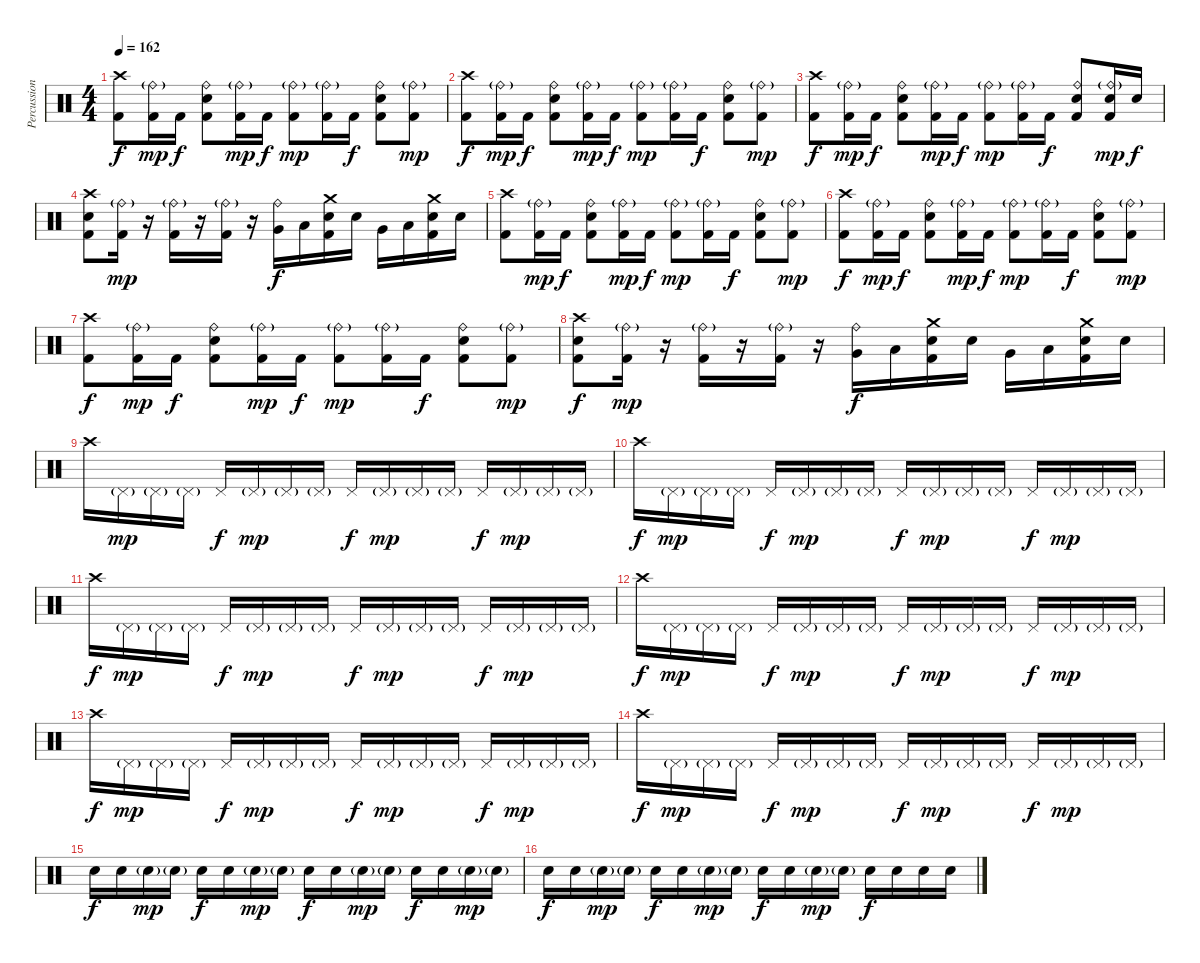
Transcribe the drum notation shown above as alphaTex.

\track ("Percussion" "Percussion") {instrument percussion}
\staff {score}
\articulation defaults
\ts (4 4)
\tempo 162
\clef neutral
\ks c
("Crash high (hit)" "Kick (hit) 2").8{dy f} ("Ride (bell)"{g} "Kick (hit) 2").16{dy mp} "Kick (hit) 2".16{dy f} ("Ride (bell)" "Electric Snare (hit)" "Kick (hit) 2").8 ("Ride (bell)"{g} "Kick (hit) 2").16{dy mp} "Kick (hit) 2".16{dy f} ("Ride (bell)"{g} "Kick (hit) 2").8{dy mp} ("Ride (bell)"{g} "Kick (hit) 2").16 "Kick (hit) 2".16{dy f} ("Ride (bell)" "Electric Snare (hit)" "Kick (hit) 2").8 ("Ride (bell)"{g} "Kick (hit) 2").8{dy mp} |
("Crash high (hit)" "Kick (hit) 2").8{dy f} ("Ride (bell)"{g} "Kick (hit) 2").16{dy mp} "Kick (hit) 2".16{dy f} ("Ride (bell)" "Electric Snare (hit)" "Kick (hit) 2").8 ("Ride (bell)"{g} "Kick (hit) 2").16{dy mp} "Kick (hit) 2".16{dy f} ("Ride (bell)"{g} "Kick (hit) 2").8{dy mp} ("Ride (bell)"{g} "Kick (hit) 2").16 "Kick (hit) 2".16{dy f} ("Ride (bell)" "Electric Snare (hit)" "Kick (hit) 2").8 ("Ride (bell)"{g} "Kick (hit) 2").8{dy mp} |
("Crash high (hit)" "Kick (hit) 2").8{dy f} ("Ride (bell)"{g} "Kick (hit) 2").16{dy mp} "Kick (hit) 2".16{dy f} ("Ride (bell)" "Electric Snare (hit)" "Kick (hit) 2").8 ("Ride (bell)"{g} "Kick (hit) 2").16{dy mp} "Kick (hit) 2".16{dy f} ("Ride (bell)"{g} "Kick (hit) 2").8{dy mp} ("Ride (bell)"{g} "Kick (hit) 2").16 "Kick (hit) 2".16{dy f} ("Ride (bell)" "Electric Snare (hit)" "Kick (hit) 2").8 ("Ride (bell)"{g} "Electric Snare (hit)" "Kick (hit) 2").16{dy mp} "Electric Snare (hit)".16{dy f} |
("Crash high (hit)" "Electric Snare (hit)" "Kick (hit) 2").8 ("Ride (bell)"{g} "Kick (hit) 2").16{dy mp} r.16 ("Ride (bell)"{g} "Kick (hit) 2").16 r.16 ("Ride (bell)"{g} "Kick (hit) 2").16 r.16 ("Ride (bell)" "Very Low Tom (hit)").16{dy f} "Low Floor Tom (hit)".16 ("Crash medium (hit)" "Electric Snare (hit)" "Kick (hit) 2").16 "Electric Snare (hit)".16 "Very Low Tom (hit)".16 "Low Floor Tom (hit)".16 ("Crash medium (hit)" "Electric Snare (hit)" "Kick (hit) 2").16 "Electric Snare (hit)".16 |
("Crash high (hit)" "Kick (hit) 2").8 ("Ride (bell)"{g} "Kick (hit) 2").16{dy mp} "Kick (hit) 2".16{dy f} ("Ride (bell)" "Electric Snare (hit)" "Kick (hit) 2").8 ("Ride (bell)"{g} "Kick (hit) 2").16{dy mp} "Kick (hit) 2".16{dy f} ("Ride (bell)"{g} "Kick (hit) 2").8{dy mp} ("Ride (bell)"{g} "Kick (hit) 2").16 "Kick (hit) 2".16{dy f} ("Ride (bell)" "Electric Snare (hit)" "Kick (hit) 2").8 ("Ride (bell)"{g} "Kick (hit) 2").8{dy mp} |
("Crash high (hit)" "Kick (hit) 2").8{dy f} ("Ride (bell)"{g} "Kick (hit) 2").16{dy mp} "Kick (hit) 2".16{dy f} ("Ride (bell)" "Electric Snare (hit)" "Kick (hit) 2").8 ("Ride (bell)"{g} "Kick (hit) 2").16{dy mp} "Kick (hit) 2".16{dy f} ("Ride (bell)"{g} "Kick (hit) 2").8{dy mp} ("Ride (bell)"{g} "Kick (hit) 2").16 "Kick (hit) 2".16{dy f} ("Ride (bell)" "Electric Snare (hit)" "Kick (hit) 2").8 ("Ride (bell)"{g} "Kick (hit) 2").8{dy mp} |
("Crash high (hit)" "Kick (hit) 2").8{dy f} ("Ride (bell)"{g} "Kick (hit) 2").16{dy mp} "Kick (hit) 2".16{dy f} ("Ride (bell)" "Electric Snare (hit)" "Kick (hit) 2").8 ("Ride (bell)"{g} "Kick (hit) 2").16{dy mp} "Kick (hit) 2".16{dy f} ("Ride (bell)"{g} "Kick (hit) 2").8{dy mp} ("Ride (bell)"{g} "Kick (hit) 2").16 "Kick (hit) 2".16{dy f} ("Ride (bell)" "Electric Snare (hit)" "Kick (hit) 2").8 ("Ride (bell)"{g} "Kick (hit) 2").8{dy mp} |
("Crash high (hit)" "Electric Snare (hit)" "Kick (hit) 2").8{dy f} ("Ride (bell)"{g} "Kick (hit) 2").16{dy mp} r.16 ("Ride (bell)"{g} "Kick (hit) 2").16 r.16 ("Ride (bell)"{g} "Kick (hit) 2").16 r.16 ("Ride (bell)" "Very Low Tom (hit)").16{dy f} "Low Floor Tom (hit)".16 ("Crash medium (hit)" "Electric Snare (hit)" "Kick (hit) 2").16 "Electric Snare (hit)".16 "Very Low Tom (hit)".16 "Low Floor Tom (hit)".16 ("Crash medium (hit)" "Electric Snare (hit)" "Kick (hit) 2").16 "Electric Snare (hit)".16 |
"Crash high (hit)".16 "Pedal Hi-Hat (hit)"{g}.16{dy mp} "Pedal Hi-Hat (hit)"{g}.16 "Pedal Hi-Hat (hit)"{g}.16 "Pedal Hi-Hat (hit)".16{dy f} "Pedal Hi-Hat (hit)"{g}.16{dy mp} "Pedal Hi-Hat (hit)"{g}.16 "Pedal Hi-Hat (hit)"{g}.16 "Pedal Hi-Hat (hit)".16{dy f} "Pedal Hi-Hat (hit)"{g}.16{dy mp} "Pedal Hi-Hat (hit)"{g}.16 "Pedal Hi-Hat (hit)"{g}.16 "Pedal Hi-Hat (hit)".16{dy f} "Pedal Hi-Hat (hit)"{g}.16{dy mp} "Pedal Hi-Hat (hit)"{g}.16 "Pedal Hi-Hat (hit)"{g}.16 |
"Crash high (hit)".16{dy f} "Pedal Hi-Hat (hit)"{g}.16{dy mp} "Pedal Hi-Hat (hit)"{g}.16 "Pedal Hi-Hat (hit)"{g}.16 "Pedal Hi-Hat (hit)".16{dy f} "Pedal Hi-Hat (hit)"{g}.16{dy mp} "Pedal Hi-Hat (hit)"{g}.16 "Pedal Hi-Hat (hit)"{g}.16 "Pedal Hi-Hat (hit)".16{dy f} "Pedal Hi-Hat (hit)"{g}.16{dy mp} "Pedal Hi-Hat (hit)"{g}.16 "Pedal Hi-Hat (hit)"{g}.16 "Pedal Hi-Hat (hit)".16{dy f} "Pedal Hi-Hat (hit)"{g}.16{dy mp} "Pedal Hi-Hat (hit)"{g}.16 "Pedal Hi-Hat (hit)"{g}.16 |
"Crash high (hit)".16{dy f} "Pedal Hi-Hat (hit)"{g}.16{dy mp} "Pedal Hi-Hat (hit)"{g}.16 "Pedal Hi-Hat (hit)"{g}.16 "Pedal Hi-Hat (hit)".16{dy f} "Pedal Hi-Hat (hit)"{g}.16{dy mp} "Pedal Hi-Hat (hit)"{g}.16 "Pedal Hi-Hat (hit)"{g}.16 "Pedal Hi-Hat (hit)".16{dy f} "Pedal Hi-Hat (hit)"{g}.16{dy mp} "Pedal Hi-Hat (hit)"{g}.16 "Pedal Hi-Hat (hit)"{g}.16 "Pedal Hi-Hat (hit)".16{dy f} "Pedal Hi-Hat (hit)"{g}.16{dy mp} "Pedal Hi-Hat (hit)"{g}.16 "Pedal Hi-Hat (hit)"{g}.16 |
"Crash high (hit)".16{dy f} "Pedal Hi-Hat (hit)"{g}.16{dy mp} "Pedal Hi-Hat (hit)"{g}.16 "Pedal Hi-Hat (hit)"{g}.16 "Pedal Hi-Hat (hit)".16{dy f} "Pedal Hi-Hat (hit)"{g}.16{dy mp} "Pedal Hi-Hat (hit)"{g}.16 "Pedal Hi-Hat (hit)"{g}.16 "Pedal Hi-Hat (hit)".16{dy f} "Pedal Hi-Hat (hit)"{g}.16{dy mp} "Pedal Hi-Hat (hit)"{g}.16 "Pedal Hi-Hat (hit)"{g}.16 "Pedal Hi-Hat (hit)".16{dy f} "Pedal Hi-Hat (hit)"{g}.16{dy mp} "Pedal Hi-Hat (hit)"{g}.16 "Pedal Hi-Hat (hit)"{g}.16 |
"Crash high (hit)".16{dy f} "Pedal Hi-Hat (hit)"{g}.16{dy mp} "Pedal Hi-Hat (hit)"{g}.16 "Pedal Hi-Hat (hit)"{g}.16 "Pedal Hi-Hat (hit)".16{dy f} "Pedal Hi-Hat (hit)"{g}.16{dy mp} "Pedal Hi-Hat (hit)"{g}.16 "Pedal Hi-Hat (hit)"{g}.16 "Pedal Hi-Hat (hit)".16{dy f} "Pedal Hi-Hat (hit)"{g}.16{dy mp} "Pedal Hi-Hat (hit)"{g}.16 "Pedal Hi-Hat (hit)"{g}.16 "Pedal Hi-Hat (hit)".16{dy f} "Pedal Hi-Hat (hit)"{g}.16{dy mp} "Pedal Hi-Hat (hit)"{g}.16 "Pedal Hi-Hat (hit)"{g}.16 |
"Crash high (hit)".16{dy f} "Pedal Hi-Hat (hit)"{g}.16{dy mp} "Pedal Hi-Hat (hit)"{g}.16 "Pedal Hi-Hat (hit)"{g}.16 "Pedal Hi-Hat (hit)".16{dy f} "Pedal Hi-Hat (hit)"{g}.16{dy mp} "Pedal Hi-Hat (hit)"{g}.16 "Pedal Hi-Hat (hit)"{g}.16 "Pedal Hi-Hat (hit)".16{dy f} "Pedal Hi-Hat (hit)"{g}.16{dy mp} "Pedal Hi-Hat (hit)"{g}.16 "Pedal Hi-Hat (hit)"{g}.16 "Pedal Hi-Hat (hit)".16{dy f} "Pedal Hi-Hat (hit)"{g}.16{dy mp} "Pedal Hi-Hat (hit)"{g}.16 "Pedal Hi-Hat (hit)"{g}.16{volume 9} |
"Electric Snare (hit)".16{dy f volume 16} "Electric Snare (hit)".16 "Electric Snare (hit)"{g}.16{dy mp} "Electric Snare (hit)"{g}.16 "Electric Snare (hit)".16{dy f} "Electric Snare (hit)".16 "Electric Snare (hit)"{g}.16{dy mp} "Electric Snare (hit)"{g}.16 "Electric Snare (hit)".16{dy f} "Electric Snare (hit)".16 "Electric Snare (hit)"{g}.16{dy mp} "Electric Snare (hit)"{g}.16 "Electric Snare (hit)".16{dy f} "Electric Snare (hit)".16 "Electric Snare (hit)"{g}.16{dy mp} "Electric Snare (hit)"{g}.16 |
"Electric Snare (hit)".16{dy f} "Electric Snare (hit)".16 "Electric Snare (hit)"{g}.16{dy mp} "Electric Snare (hit)"{g}.16 "Electric Snare (hit)".16{dy f} "Electric Snare (hit)".16 "Electric Snare (hit)"{g}.16{dy mp} "Electric Snare (hit)"{g}.16 "Electric Snare (hit)".16{dy f} "Electric Snare (hit)".16 "Electric Snare (hit)"{g}.16{dy mp} "Electric Snare (hit)"{g}.16 "Electric Snare (hit)".16{dy f} "Electric Snare (hit)".16 "Electric Snare (hit)".16 "Electric Snare (hit)".16
